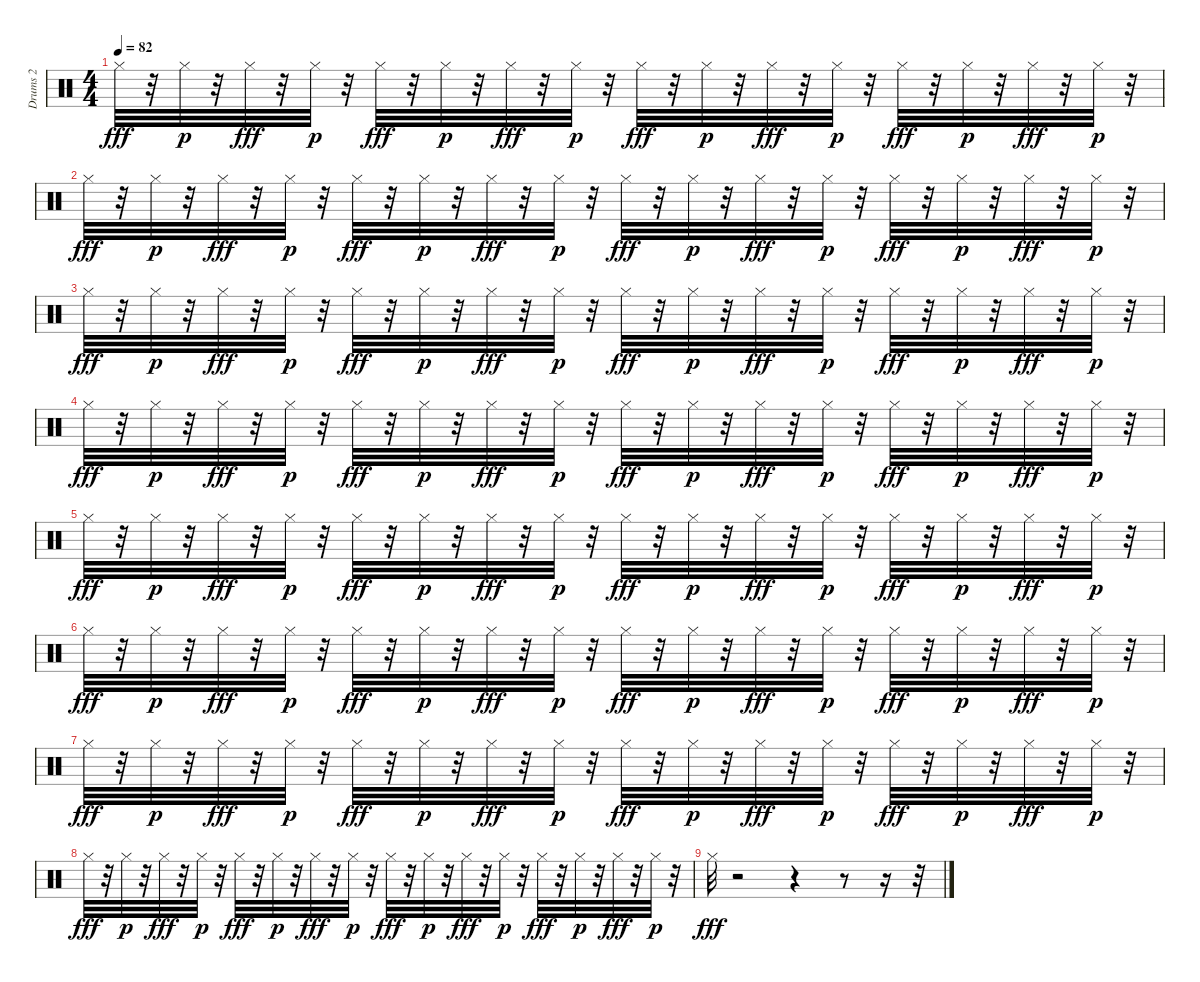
\track ("Drums 2" "Drums 2") {instrument percussion}
\staff {score}
\articulation defaults
\ts (4 4)
\tempo 82
\clef neutral
\ks c "Hi-Hat (closed)".32{dy fff}
r.32 "Hi-Hat (closed)".32{dy p} r.32 "Hi-Hat (closed)".32{dy fff} r.32 "Hi-Hat (closed)".32{dy p} r.32 "Hi-Hat (closed)".32{dy fff} r.32 "Hi-Hat (closed)".32{dy p} r.32 "Hi-Hat (closed)".32{dy fff} r.32 "Hi-Hat (closed)".32{dy p} r.32 "Hi-Hat (closed)".32{dy fff} r.32 "Hi-Hat (closed)".32{dy p} r.32 "Hi-Hat (closed)".32{dy fff} r.32 "Hi-Hat (closed)".32{dy p} r.32 "Hi-Hat (closed)".32{dy fff} r.32 "Hi-Hat (closed)".32{dy p} r.32 "Hi-Hat (closed)".32{dy fff} r.32 "Hi-Hat (closed)".32{dy p} r.32 |
"Hi-Hat (closed)".32{dy fff} r.32 "Hi-Hat (closed)".32{dy p} r.32 "Hi-Hat (closed)".32{dy fff} r.32 "Hi-Hat (closed)".32{dy p} r.32 "Hi-Hat (closed)".32{dy fff} r.32 "Hi-Hat (closed)".32{dy p} r.32 "Hi-Hat (closed)".32{dy fff} r.32 "Hi-Hat (closed)".32{dy p} r.32 "Hi-Hat (closed)".32{dy fff} r.32 "Hi-Hat (closed)".32{dy p} r.32 "Hi-Hat (closed)".32{dy fff} r.32 "Hi-Hat (closed)".32{dy p} r.32 "Hi-Hat (closed)".32{dy fff} r.32 "Hi-Hat (closed)".32{dy p} r.32 "Hi-Hat (closed)".32{dy fff} r.32 "Hi-Hat (closed)".32{dy p} r.32 |
"Hi-Hat (closed)".32{dy fff} r.32 "Hi-Hat (closed)".32{dy p} r.32 "Hi-Hat (closed)".32{dy fff} r.32 "Hi-Hat (closed)".32{dy p} r.32 "Hi-Hat (closed)".32{dy fff} r.32 "Hi-Hat (closed)".32{dy p} r.32 "Hi-Hat (closed)".32{dy fff} r.32 "Hi-Hat (closed)".32{dy p} r.32 "Hi-Hat (closed)".32{dy fff} r.32 "Hi-Hat (closed)".32{dy p} r.32 "Hi-Hat (closed)".32{dy fff} r.32 "Hi-Hat (closed)".32{dy p} r.32 "Hi-Hat (closed)".32{dy fff} r.32 "Hi-Hat (closed)".32{dy p} r.32 "Hi-Hat (closed)".32{dy fff} r.32 "Hi-Hat (closed)".32{dy p} r.32 |
"Hi-Hat (closed)".32{dy fff} r.32 "Hi-Hat (closed)".32{dy p} r.32 "Hi-Hat (closed)".32{dy fff} r.32 "Hi-Hat (closed)".32{dy p} r.32 "Hi-Hat (closed)".32{dy fff} r.32 "Hi-Hat (closed)".32{dy p} r.32 "Hi-Hat (closed)".32{dy fff} r.32 "Hi-Hat (closed)".32{dy p} r.32 "Hi-Hat (closed)".32{dy fff} r.32 "Hi-Hat (closed)".32{dy p} r.32 "Hi-Hat (closed)".32{dy fff} r.32 "Hi-Hat (closed)".32{dy p} r.32 "Hi-Hat (closed)".32{dy fff} r.32 "Hi-Hat (closed)".32{dy p} r.32 "Hi-Hat (closed)".32{dy fff} r.32 "Hi-Hat (closed)".32{dy p} r.32 |
"Hi-Hat (closed)".32{dy fff} r.32 "Hi-Hat (closed)".32{dy p} r.32 "Hi-Hat (closed)".32{dy fff} r.32 "Hi-Hat (closed)".32{dy p} r.32 "Hi-Hat (closed)".32{dy fff} r.32 "Hi-Hat (closed)".32{dy p} r.32 "Hi-Hat (closed)".32{dy fff} r.32 "Hi-Hat (closed)".32{dy p} r.32 "Hi-Hat (closed)".32{dy fff} r.32 "Hi-Hat (closed)".32{dy p} r.32 "Hi-Hat (closed)".32{dy fff} r.32 "Hi-Hat (closed)".32{dy p} r.32 "Hi-Hat (closed)".32{dy fff} r.32 "Hi-Hat (closed)".32{dy p} r.32 "Hi-Hat (closed)".32{dy fff} r.32 "Hi-Hat (closed)".32{dy p} r.32 |
"Hi-Hat (closed)".32{dy fff} r.32 "Hi-Hat (closed)".32{dy p} r.32 "Hi-Hat (closed)".32{dy fff} r.32 "Hi-Hat (closed)".32{dy p} r.32 "Hi-Hat (closed)".32{dy fff} r.32 "Hi-Hat (closed)".32{dy p} r.32 "Hi-Hat (closed)".32{dy fff} r.32 "Hi-Hat (closed)".32{dy p} r.32 "Hi-Hat (closed)".32{dy fff} r.32 "Hi-Hat (closed)".32{dy p} r.32 "Hi-Hat (closed)".32{dy fff} r.32 "Hi-Hat (closed)".32{dy p} r.32 "Hi-Hat (closed)".32{dy fff} r.32 "Hi-Hat (closed)".32{dy p} r.32 "Hi-Hat (closed)".32{dy fff} r.32 "Hi-Hat (closed)".32{dy p} r.32 |
"Hi-Hat (closed)".32{dy fff} r.32 "Hi-Hat (closed)".32{dy p} r.32 "Hi-Hat (closed)".32{dy fff} r.32 "Hi-Hat (closed)".32{dy p} r.32 "Hi-Hat (closed)".32{dy fff} r.32 "Hi-Hat (closed)".32{dy p} r.32 "Hi-Hat (closed)".32{dy fff} r.32 "Hi-Hat (closed)".32{dy p} r.32 "Hi-Hat (closed)".32{dy fff} r.32 "Hi-Hat (closed)".32{dy p} r.32 "Hi-Hat (closed)".32{dy fff} r.32 "Hi-Hat (closed)".32{dy p} r.32 "Hi-Hat (closed)".32{dy fff} r.32 "Hi-Hat (closed)".32{dy p} r.32 "Hi-Hat (closed)".32{dy fff} r.32 "Hi-Hat (closed)".32{dy p} r.32 |
"Hi-Hat (closed)".32{dy fff} r.32 "Hi-Hat (closed)".32{dy p} r.32 "Hi-Hat (closed)".32{dy fff} r.32 "Hi-Hat (closed)".32{dy p} r.32 "Hi-Hat (closed)".32{dy fff} r.32 "Hi-Hat (closed)".32{dy p} r.32 "Hi-Hat (closed)".32{dy fff} r.32 "Hi-Hat (closed)".32{dy p} r.32 "Hi-Hat (closed)".32{dy fff} r.32 "Hi-Hat (closed)".32{dy p} r.32 "Hi-Hat (closed)".32{dy fff} r.32 "Hi-Hat (closed)".32{dy p} r.32 "Hi-Hat (closed)".32{dy fff} r.32 "Hi-Hat (closed)".32{dy p} r.32 "Hi-Hat (closed)".32{dy fff} r.32 "Hi-Hat (closed)".32{dy p} r.32 |
"Hi-Hat (closed)".32{dy fff} r.2 r.4 r.8 r.16 r.32
